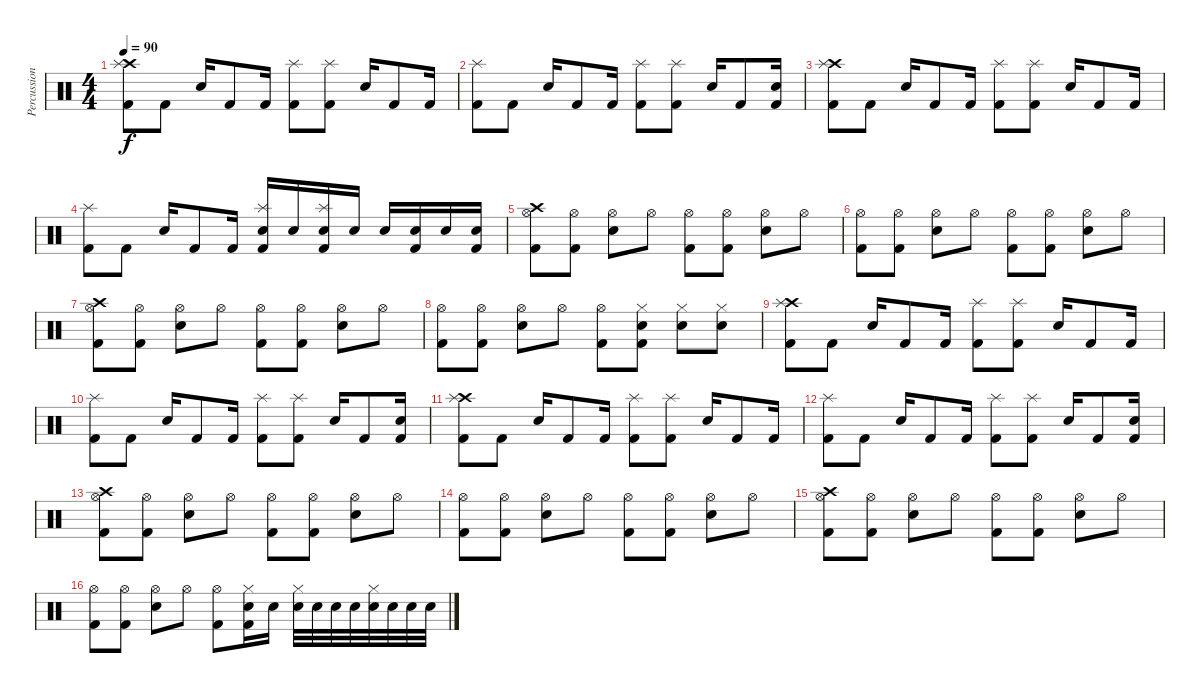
\track ("Percussion" "Percussion") {instrument percussion}
\staff {score}
\articulation defaults
\ts (4 4)
\tempo 90
\clef neutral
\ks c
("Crash high (hit)" "Kick (hit) 2" "Splash (hit)").8{dy f} "Kick (hit) 2".8 "Electric Snare (hit)".16 "Kick (hit) 2".8 "Kick (hit) 2".16 ("Kick (hit) 2" "Splash (hit)").8 ("Kick (hit) 2" "Splash (hit)").8 "Electric Snare (hit)".16 "Kick (hit) 2".8 "Kick (hit) 2".16 |
("Kick (hit) 2" "Splash (hit)").8 "Kick (hit) 2".8 "Electric Snare (hit)".16 "Kick (hit) 2".8 "Kick (hit) 2".16 ("Kick (hit) 2" "Splash (hit)").8 ("Kick (hit) 2" "Splash (hit)").8 "Electric Snare (hit)".16 "Kick (hit) 2".8 ("Electric Snare (hit)" "Kick (hit) 2").16 |
("Crash high (hit)" "Kick (hit) 2" "Splash (hit)").8 "Kick (hit) 2".8 "Electric Snare (hit)".16 "Kick (hit) 2".8 "Kick (hit) 2".16 ("Kick (hit) 2" "Splash (hit)").8 ("Kick (hit) 2" "Splash (hit)").8 "Electric Snare (hit)".16 "Kick (hit) 2".8 "Kick (hit) 2".16 |
("Kick (hit) 2" "Splash (hit)").8 "Kick (hit) 2".8 "Electric Snare (hit)".16 "Kick (hit) 2".8 "Kick (hit) 2".16 ("Electric Snare (hit)" "Kick (hit) 2" "Splash (hit)").16 "Electric Snare (hit)".16 ("Electric Snare (hit)" "Kick (hit) 2" "Splash (hit)").16 "Electric Snare (hit)".16 "Electric Snare (hit)".16 ("Electric Snare (hit)" "Kick (hit) 2").16 "Electric Snare (hit)".16 ("Electric Snare (hit)" "Kick (hit) 2").16 |
("Hi-Hat (open)" "Kick (hit) 2" "Crash high (hit)").8 ("Hi-Hat (open)" "Kick (hit) 2").8 ("Hi-Hat (open)" "Electric Snare (hit)").8 "Hi-Hat (open)".8 ("Hi-Hat (open)" "Kick (hit) 2").8 ("Hi-Hat (open)" "Kick (hit) 2").8 ("Hi-Hat (open)" "Electric Snare (hit)").8 "Hi-Hat (open)".8 |
("Hi-Hat (open)" "Kick (hit) 2").8 ("Hi-Hat (open)" "Kick (hit) 2").8 ("Hi-Hat (open)" "Electric Snare (hit)").8 "Hi-Hat (open)".8 ("Hi-Hat (open)" "Kick (hit) 2").8 ("Hi-Hat (open)" "Kick (hit) 2").8 ("Hi-Hat (open)" "Electric Snare (hit)").8 "Hi-Hat (open)".8 |
("Hi-Hat (open)" "Kick (hit) 2" "Crash high (hit)").8 ("Hi-Hat (open)" "Kick (hit) 2").8 ("Hi-Hat (open)" "Electric Snare (hit)").8 "Hi-Hat (open)".8 ("Hi-Hat (open)" "Kick (hit) 2").8 ("Hi-Hat (open)" "Kick (hit) 2").8 ("Hi-Hat (open)" "Electric Snare (hit)").8 "Hi-Hat (open)".8 |
("Hi-Hat (open)" "Kick (hit) 2").8 ("Hi-Hat (open)" "Kick (hit) 2").8 ("Hi-Hat (open)" "Electric Snare (hit)").8 "Hi-Hat (open)".8 ("Hi-Hat (open)" "Kick (hit) 2").8 ("Electric Snare (hit)" "Kick (hit) 2" "Hi-Hat (closed)").8 ("Electric Snare (hit)" "Hi-Hat (closed)").8 ("Electric Snare (hit)" "Hi-Hat (closed)").8 |
("Crash high (hit)" "Kick (hit) 2" "Splash (hit)").8 "Kick (hit) 2".8 "Electric Snare (hit)".16 "Kick (hit) 2".8 "Kick (hit) 2".16 ("Kick (hit) 2" "Splash (hit)").8 ("Kick (hit) 2" "Splash (hit)").8 "Electric Snare (hit)".16 "Kick (hit) 2".8 "Kick (hit) 2".16 |
("Kick (hit) 2" "Splash (hit)").8 "Kick (hit) 2".8 "Electric Snare (hit)".16 "Kick (hit) 2".8 "Kick (hit) 2".16 ("Kick (hit) 2" "Splash (hit)").8 ("Kick (hit) 2" "Splash (hit)").8 "Electric Snare (hit)".16 "Kick (hit) 2".8 ("Electric Snare (hit)" "Kick (hit) 2").16 |
("Crash high (hit)" "Kick (hit) 2" "Splash (hit)").8 "Kick (hit) 2".8 "Electric Snare (hit)".16 "Kick (hit) 2".8 "Kick (hit) 2".16 ("Kick (hit) 2" "Splash (hit)").8 ("Kick (hit) 2" "Splash (hit)").8 "Electric Snare (hit)".16 "Kick (hit) 2".8 "Kick (hit) 2".16 |
("Kick (hit) 2" "Splash (hit)").8 "Kick (hit) 2".8 "Electric Snare (hit)".16 "Kick (hit) 2".8 "Kick (hit) 2".16 ("Kick (hit) 2" "Splash (hit)").8 ("Kick (hit) 2" "Splash (hit)").8 "Electric Snare (hit)".16 "Kick (hit) 2".8 ("Electric Snare (hit)" "Kick (hit) 2").16 |
("Hi-Hat (open)" "Kick (hit) 2" "Crash high (hit)").8 ("Hi-Hat (open)" "Kick (hit) 2").8 ("Hi-Hat (open)" "Electric Snare (hit)").8 "Hi-Hat (open)".8 ("Hi-Hat (open)" "Kick (hit) 2").8 ("Hi-Hat (open)" "Kick (hit) 2").8 ("Hi-Hat (open)" "Electric Snare (hit)").8 "Hi-Hat (open)".8 |
("Hi-Hat (open)" "Kick (hit) 2").8 ("Hi-Hat (open)" "Kick (hit) 2").8 ("Hi-Hat (open)" "Electric Snare (hit)").8 "Hi-Hat (open)".8 ("Hi-Hat (open)" "Kick (hit) 2").8 ("Hi-Hat (open)" "Kick (hit) 2").8 ("Hi-Hat (open)" "Electric Snare (hit)").8 "Hi-Hat (open)".8 |
("Hi-Hat (open)" "Kick (hit) 2" "Crash high (hit)").8 ("Hi-Hat (open)" "Kick (hit) 2").8 ("Hi-Hat (open)" "Electric Snare (hit)").8 "Hi-Hat (open)".8 ("Hi-Hat (open)" "Kick (hit) 2").8 ("Hi-Hat (open)" "Kick (hit) 2").8 ("Hi-Hat (open)" "Electric Snare (hit)").8 "Hi-Hat (open)".8 |
("Hi-Hat (open)" "Kick (hit) 2").8 ("Hi-Hat (open)" "Kick (hit) 2").8 ("Hi-Hat (open)" "Electric Snare (hit)").8 "Hi-Hat (open)".8 ("Hi-Hat (open)" "Kick (hit) 2").8 ("Electric Snare (hit)" "Kick (hit) 2" "Hi-Hat (closed)").16 "Electric Snare (hit)".16 ("Electric Snare (hit)" "Hi-Hat (closed)").32 "Electric Snare (hit)".32 "Electric Snare (hit)".32 "Electric Snare (hit)".32 ("Electric Snare (hit)" "Hi-Hat (closed)").32 "Electric Snare (hit)".32 "Electric Snare (hit)".32 "Electric Snare (hit)".32
